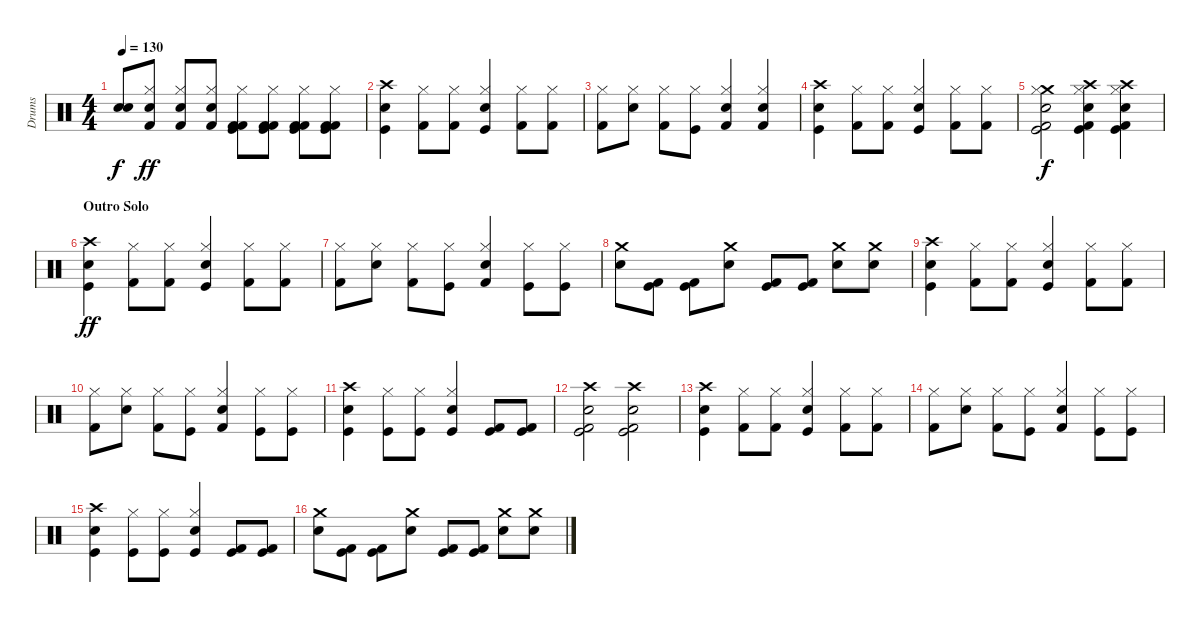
\track ("Drums" "Drums") {instrument percussion}
\staff {score}
\articulation defaults
\ts (4 4)
\tempo 130
\clef neutral
\ks c
("Snare (hit)"{t} "Snare (hit)"{t}).8{dy f} ("Hi-Hat (closed)" "Snare (hit) 2" "Kick (hit) 2").8{dy ff} ("Hi-Hat (closed)" "Snare (hit) 2" "Kick (hit) 2").8 ("Hi-Hat (closed)" "Snare (hit) 2" "Kick (hit) 2").8 ("Hi-Hat (closed)" "Kick (hit) 2" "Kick (hit) 2" "Kick (hit)").8 ("Hi-Hat (closed)" "Kick (hit) 2" "Kick (hit) 2" "Kick (hit)").8 ("Hi-Hat (closed)" "Kick (hit) 2" "Kick (hit) 2" "Kick (hit)").8 ("Hi-Hat (closed)" "Kick (hit) 2" "Kick (hit) 2" "Kick (hit)").8 |
("Crash high (hit)" "Snare (hit) 2" "Kick (hit)").4 ("Hi-Hat (closed)" "Kick (hit) 2").8 ("Hi-Hat (closed)" "Kick (hit) 2").8 ("Hi-Hat (closed)" "Snare (hit) 2" "Kick (hit)").4 ("Hi-Hat (closed)" "Kick (hit) 2").8 ("Hi-Hat (closed)" "Kick (hit) 2").8 |
("Hi-Hat (closed)" "Kick (hit) 2").8 ("Hi-Hat (closed)" "Snare (hit) 2").8 ("Hi-Hat (closed)" "Kick (hit) 2").8 ("Hi-Hat (closed)" "Kick (hit)").8 ("Hi-Hat (closed)" "Kick (hit) 2" "Snare (hit) 2").4 ("Hi-Hat (closed)" "Kick (hit) 2" "Snare (hit) 2").4 |
("Crash high (hit)" "Snare (hit) 2" "Kick (hit)").4 ("Hi-Hat (closed)" "Kick (hit) 2").8 ("Hi-Hat (closed)" "Kick (hit) 2").8 ("Hi-Hat (closed)" "Snare (hit) 2" "Kick (hit)").4 ("Hi-Hat (closed)" "Kick (hit) 2").8 ("Hi-Hat (closed)" "Kick (hit) 2").8 |
("Crash medium (hit)" "Hi-Hat (closed)" "Snare (hit) 2" "Kick (hit)" "Kick (hit) 2").2{dy f} ("Crash high (hit)" "Hi-Hat (closed)" "Snare (hit) 2" "Kick (hit)" "Kick (hit) 2").4 ("Crash high (hit)" "Hi-Hat (closed)" "Snare (hit) 2" "Kick (hit)" "Kick (hit) 2").4 |
\section ("" "Outro Solo")
("Crash high (hit)" "Snare (hit) 2" "Kick (hit)").4{dy ff} ("Hi-Hat (closed)" "Kick (hit) 2").8 ("Hi-Hat (closed)" "Kick (hit) 2").8 ("Hi-Hat (closed)" "Snare (hit) 2" "Kick (hit)").4 ("Hi-Hat (closed)" "Kick (hit) 2").8 ("Hi-Hat (closed)" "Kick (hit) 2").8 |
("Hi-Hat (closed)" "Kick (hit) 2").8 ("Hi-Hat (closed)" "Snare (hit) 2").8 ("Hi-Hat (closed)" "Kick (hit) 2").8 ("Hi-Hat (closed)" "Kick (hit)").8 ("Hi-Hat (closed)" "Kick (hit) 2" "Snare (hit) 2").4 ("Hi-Hat (closed)" "Kick (hit)").8 ("Hi-Hat (closed)" "Kick (hit)").8 |
("Crash medium (hit)" "Snare (hit) 2").8 ("Kick (hit) 2" "Kick (hit)").8 ("Kick (hit) 2" "Kick (hit)").8 ("Crash medium (hit)" "Snare (hit) 2").8 ("Kick (hit) 2" "Kick (hit)").8 ("Kick (hit) 2" "Kick (hit)").8 ("Crash medium (hit)" "Snare (hit) 2").8 ("Crash medium (hit)" "Snare (hit) 2").8 |
("Crash high (hit)" "Snare (hit) 2" "Kick (hit)").4 ("Hi-Hat (closed)" "Kick (hit) 2").8 ("Hi-Hat (closed)" "Kick (hit) 2").8 ("Hi-Hat (closed)" "Snare (hit) 2" "Kick (hit)").4 ("Hi-Hat (closed)" "Kick (hit) 2").8 ("Hi-Hat (closed)" "Kick (hit) 2").8 |
("Hi-Hat (closed)" "Kick (hit) 2").8 ("Hi-Hat (closed)" "Snare (hit) 2").8 ("Hi-Hat (closed)" "Kick (hit) 2").8 ("Hi-Hat (closed)" "Kick (hit)").8 ("Hi-Hat (closed)" "Kick (hit) 2" "Snare (hit) 2").4 ("Hi-Hat (closed)" "Kick (hit)").8 ("Hi-Hat (closed)" "Kick (hit)").8 |
("Crash high (hit)" "Snare (hit) 2" "Kick (hit)").4 ("Hi-Hat (closed)" "Kick (hit)").8 ("Hi-Hat (closed)" "Kick (hit)").8 ("Hi-Hat (closed)" "Snare (hit) 2" "Kick (hit)").4 ("Kick (hit) 2" "Kick (hit)").8 ("Kick (hit) 2" "Kick (hit)").8 |
("Crash high (hit)" "Snare (hit) 2" "Kick (hit) 2" "Kick (hit)").2 ("Crash high (hit)" "Snare (hit) 2" "Kick (hit) 2" "Kick (hit)").2 |
("Crash high (hit)" "Snare (hit) 2" "Kick (hit)").4 ("Hi-Hat (closed)" "Kick (hit) 2").8 ("Hi-Hat (closed)" "Kick (hit) 2").8 ("Hi-Hat (closed)" "Snare (hit) 2" "Kick (hit)").4 ("Hi-Hat (closed)" "Kick (hit) 2").8 ("Hi-Hat (closed)" "Kick (hit) 2").8 |
("Hi-Hat (closed)" "Kick (hit) 2").8 ("Hi-Hat (closed)" "Snare (hit) 2").8 ("Hi-Hat (closed)" "Kick (hit) 2").8 ("Hi-Hat (closed)" "Kick (hit)").8 ("Hi-Hat (closed)" "Kick (hit) 2" "Snare (hit) 2").4 ("Hi-Hat (closed)" "Kick (hit)").8 ("Hi-Hat (closed)" "Kick (hit)").8 |
("Crash high (hit)" "Snare (hit) 2" "Kick (hit)").4 ("Hi-Hat (closed)" "Kick (hit)").8 ("Hi-Hat (closed)" "Kick (hit)").8 ("Hi-Hat (closed)" "Snare (hit) 2" "Kick (hit)").4 ("Kick (hit) 2" "Kick (hit)").8 ("Kick (hit) 2" "Kick (hit)").8 |
("Crash medium (hit)" "Snare (hit) 2").8 ("Kick (hit) 2" "Kick (hit)").8 ("Kick (hit) 2" "Kick (hit)").8 ("Crash medium (hit)" "Snare (hit) 2").8 ("Kick (hit) 2" "Kick (hit)").8 ("Kick (hit) 2" "Kick (hit)").8 ("Crash medium (hit)" "Snare (hit) 2").8 ("Crash medium (hit)" "Snare (hit) 2").8
